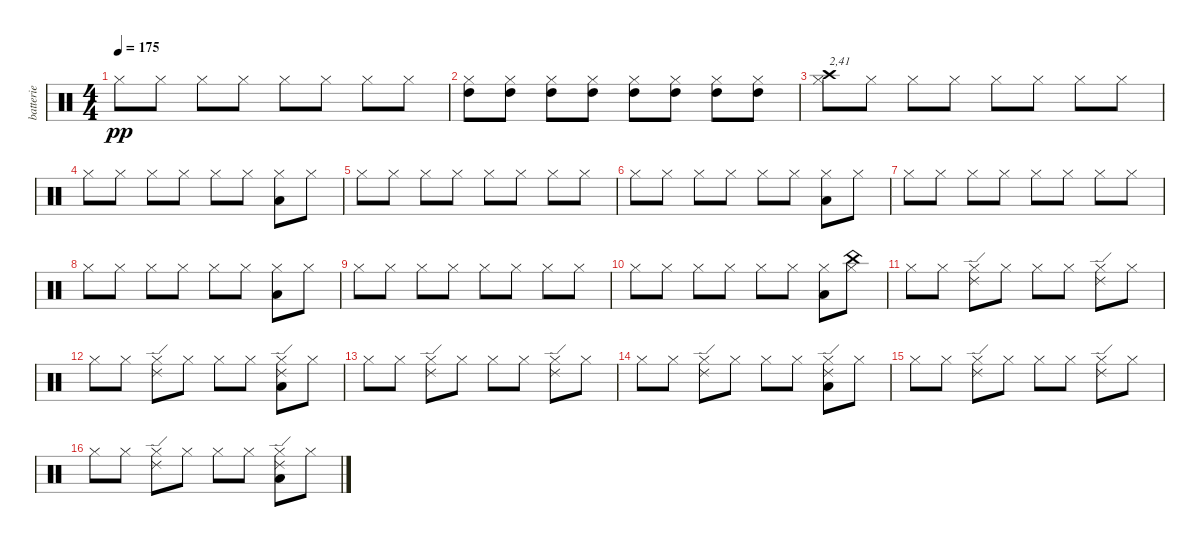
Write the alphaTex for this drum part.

\track ("batterie" "batterie") {instrument percussion}
\staff {score}
\articulation defaults
\ts (4 4)
\tempo 175
\clef neutral
\ks c "Hi-Hat (closed)".8{dy pp} "Hi-Hat (closed)".8 "Hi-Hat (closed)".8 "Hi-Hat (closed)".8 "Hi-Hat (closed)".8 "Hi-Hat (closed)".8 "Hi-Hat (closed)".8 "Hi-Hat (closed)".8
|
("High Tom (hit)" "Hi-Hat (closed)").8 ("High Tom (hit)" "Hi-Hat (closed)").8 ("High Tom (hit)" "Hi-Hat (closed)").8 ("High Tom (hit)" "Hi-Hat (closed)").8 ("High Tom (hit)" "Hi-Hat (closed)").8 ("High Tom (hit)" "Hi-Hat (closed)").8 ("High Tom (hit)" "Hi-Hat (closed)").8 ("High Tom (hit)" "Hi-Hat (closed)").8 |
("Crash high (hit)" "Hi-Hat (closed)").8{txt "2,41"} "Hi-Hat (closed)".8 "Hi-Hat (closed)".8 "Hi-Hat (closed)".8 "Hi-Hat (closed)".8 "Hi-Hat (closed)".8 "Hi-Hat (closed)".8 "Hi-Hat (closed)".8 |
"Hi-Hat (closed)".8 "Hi-Hat (closed)".8 "Hi-Hat (closed)".8 "Hi-Hat (closed)".8 "Hi-Hat (closed)".8 "Hi-Hat (closed)".8 ("Low Floor Tom (hit)" "Hi-Hat (closed)").8 "Hi-Hat (closed)".8 |
"Hi-Hat (closed)".8 "Hi-Hat (closed)".8 "Hi-Hat (closed)".8 "Hi-Hat (closed)".8 "Hi-Hat (closed)".8 "Hi-Hat (closed)".8 "Hi-Hat (closed)".8 "Hi-Hat (closed)".8 |
"Hi-Hat (closed)".8 "Hi-Hat (closed)".8 "Hi-Hat (closed)".8 "Hi-Hat (closed)".8 "Hi-Hat (closed)".8 "Hi-Hat (closed)".8 ("Low Floor Tom (hit)" "Hi-Hat (closed)").8 "Hi-Hat (closed)".8 |
"Hi-Hat (closed)".8 "Hi-Hat (closed)".8 "Hi-Hat (closed)".8 "Hi-Hat (closed)".8 "Hi-Hat (closed)".8 "Hi-Hat (closed)".8 "Hi-Hat (closed)".8 "Hi-Hat (closed)".8 |
"Hi-Hat (closed)".8 "Hi-Hat (closed)".8 "Hi-Hat (closed)".8 "Hi-Hat (closed)".8 "Hi-Hat (closed)".8 "Hi-Hat (closed)".8 ("Low Floor Tom (hit)" "Hi-Hat (closed)").8 "Hi-Hat (closed)".8 |
"Hi-Hat (closed)".8 "Hi-Hat (closed)".8 "Hi-Hat (closed)".8 "Hi-Hat (closed)".8 "Hi-Hat (closed)".8 "Hi-Hat (closed)".8 "Hi-Hat (closed)".8 "Hi-Hat (closed)".8 |
"Hi-Hat (closed)".8 "Hi-Hat (closed)".8 "Hi-Hat (closed)".8 "Hi-Hat (closed)".8 "Hi-Hat (closed)".8 "Hi-Hat (closed)".8 ("Low Floor Tom (hit)" "Hi-Hat (closed)").8 ("China (hit)" "Hi-Hat (closed)").8 |
"Hi-Hat (closed)".8 "Hi-Hat (closed)".8 ("Ride (edge) 2" "Hi-Hat (closed)").8 "Hi-Hat (closed)".8 "Hi-Hat (closed)".8 "Hi-Hat (closed)".8 ("Ride (edge) 2" "Hi-Hat (closed)").8 "Hi-Hat (closed)".8 |
"Hi-Hat (closed)".8 "Hi-Hat (closed)".8 ("Ride (edge) 2" "Hi-Hat (closed)").8 "Hi-Hat (closed)".8 "Hi-Hat (closed)".8 "Hi-Hat (closed)".8 ("Ride (edge) 2" "Low Floor Tom (hit)" "Hi-Hat (closed)").8 "Hi-Hat (closed)".8 |
"Hi-Hat (closed)".8 "Hi-Hat (closed)".8 ("Ride (edge) 2" "Hi-Hat (closed)").8 "Hi-Hat (closed)".8 "Hi-Hat (closed)".8 "Hi-Hat (closed)".8 ("Ride (edge) 2" "Hi-Hat (closed)").8 "Hi-Hat (closed)".8 |
"Hi-Hat (closed)".8 "Hi-Hat (closed)".8 ("Ride (edge) 2" "Hi-Hat (closed)").8 "Hi-Hat (closed)".8 "Hi-Hat (closed)".8 "Hi-Hat (closed)".8 ("Ride (edge) 2" "Low Floor Tom (hit)" "Hi-Hat (closed)").8 "Hi-Hat (closed)".8 |
"Hi-Hat (closed)".8 "Hi-Hat (closed)".8 ("Ride (edge) 2" "Hi-Hat (closed)").8 "Hi-Hat (closed)".8 "Hi-Hat (closed)".8 "Hi-Hat (closed)".8 ("Ride (edge) 2" "Hi-Hat (closed)").8 "Hi-Hat (closed)".8 |
"Hi-Hat (closed)".8 "Hi-Hat (closed)".8 ("Ride (edge) 2" "Hi-Hat (closed)").8 "Hi-Hat (closed)".8 "Hi-Hat (closed)".8 "Hi-Hat (closed)".8 ("Ride (edge) 2" "Low Floor Tom (hit)" "Hi-Hat (closed)").8 "Hi-Hat (closed)".8
